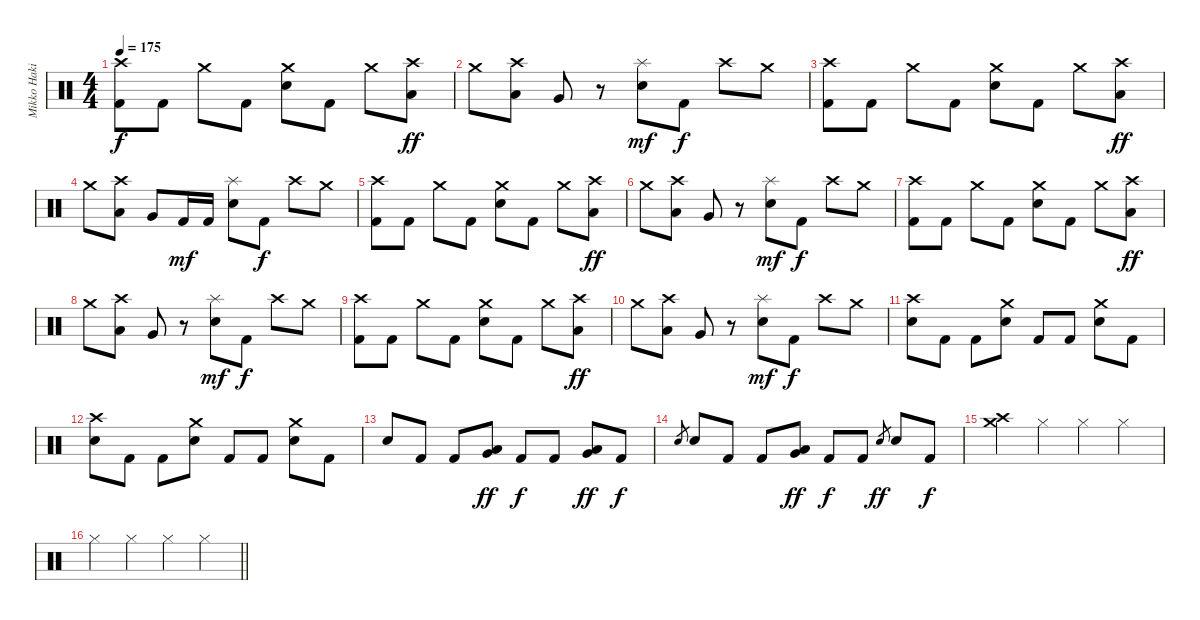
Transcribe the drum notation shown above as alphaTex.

\track ("Mikko Hakila - Drums" "Mikko Haki") {instrument percussion}
\staff {score}
\articulation defaults
\ts (4 4)
\tempo 175
\clef neutral
\ks c
("Crash high (hit)" "Kick (hit) 2").8{dy f} "Kick (hit) 2".8 "Crash medium (hit)".8 "Kick (hit) 2".8 ("Crash medium (hit)" "Electric Snare (hit)").8 "Kick (hit) 2".8 "Crash medium (hit)".8 ("Crash high (hit)" "Low Tom (hit)").8{dy ff} |
"Crash medium (hit)".8 ("Crash high (hit)" "Low Tom (hit)").8 "Very Low Tom (hit)".8 r.8 ("Splash (hit)" "Electric Snare (hit)").8{dy mf} "Kick (hit) 2".8{dy f} "Crash high (hit)".8 "Crash medium (hit)".8 |
("Crash high (hit)" "Kick (hit) 2").8 "Kick (hit) 2".8 "Crash medium (hit)".8 "Kick (hit) 2".8 ("Crash medium (hit)" "Electric Snare (hit)").8 "Kick (hit) 2".8 "Crash medium (hit)".8 ("Crash high (hit)" "Low Tom (hit)").8{dy ff} |
"Crash medium (hit)".8 ("Crash high (hit)" "Low Tom (hit)").8 "Very Low Tom (hit)".8 "Kick (hit) 2".16{dy mf} "Kick (hit) 2".16 ("Splash (hit)" "Electric Snare (hit)").8 "Kick (hit) 2".8{dy f} "Crash high (hit)".8 "Crash medium (hit)".8 |
("Crash high (hit)" "Kick (hit) 2").8 "Kick (hit) 2".8 "Crash medium (hit)".8 "Kick (hit) 2".8 ("Crash medium (hit)" "Electric Snare (hit)").8 "Kick (hit) 2".8 "Crash medium (hit)".8 ("Crash high (hit)" "Low Tom (hit)").8{dy ff} |
"Crash medium (hit)".8 ("Crash high (hit)" "Low Tom (hit)").8 "Very Low Tom (hit)".8 r.8 ("Splash (hit)" "Electric Snare (hit)").8{dy mf} "Kick (hit) 2".8{dy f} "Crash high (hit)".8 "Crash medium (hit)".8 |
("Crash high (hit)" "Kick (hit) 2").8 "Kick (hit) 2".8 "Crash medium (hit)".8 "Kick (hit) 2".8 ("Crash medium (hit)" "Electric Snare (hit)").8 "Kick (hit) 2".8 "Crash medium (hit)".8 ("Crash high (hit)" "Low Tom (hit)").8{dy ff} |
"Crash medium (hit)".8 ("Crash high (hit)" "Low Tom (hit)").8 "Very Low Tom (hit)".8 r.8 ("Splash (hit)" "Electric Snare (hit)").8{dy mf} "Kick (hit) 2".8{dy f} "Crash high (hit)".8 "Crash medium (hit)".8 |
("Crash high (hit)" "Kick (hit) 2").8 "Kick (hit) 2".8 "Crash medium (hit)".8 "Kick (hit) 2".8 ("Crash medium (hit)" "Electric Snare (hit)").8 "Kick (hit) 2".8 "Crash medium (hit)".8 ("Crash high (hit)" "Low Tom (hit)").8{dy ff} |
"Crash medium (hit)".8 ("Crash high (hit)" "Low Tom (hit)").8 "Very Low Tom (hit)".8 r.8 ("Splash (hit)" "Electric Snare (hit)").8{dy mf} "Kick (hit) 2".8{dy f} "Crash high (hit)".8 "Crash medium (hit)".8 |
("Crash high (hit)" "Electric Snare (hit)").8 "Kick (hit) 2".8 "Kick (hit) 2".8 ("Crash medium (hit)" "Electric Snare (hit)").8 "Kick (hit) 2".8 "Kick (hit) 2".8 ("Crash medium (hit)" "Electric Snare (hit)").8 "Kick (hit) 2".8 |
("Crash high (hit)" "Electric Snare (hit)").8 "Kick (hit) 2".8 "Kick (hit) 2".8 ("Crash medium (hit)" "Electric Snare (hit)").8 "Kick (hit) 2".8 "Kick (hit) 2".8 ("Crash medium (hit)" "Electric Snare (hit)").8 "Kick (hit) 2".8 |
"Electric Snare (hit)".8 "Kick (hit) 2".8 "Kick (hit) 2".8 ("Low Tom (hit)" "Very Low Tom (hit)").8{dy ff} "Kick (hit) 2".8{dy f} "Kick (hit) 2".8 ("Low Tom (hit)" "Very Low Tom (hit)").8{dy ff} "Kick (hit) 2".8{dy f} |
"Electric Snare (hit)".8{gr} "Electric Snare (hit)".8 "Kick (hit) 2".8 "Kick (hit) 2".8 ("Low Tom (hit)" "Very Low Tom (hit)").8{dy ff} "Kick (hit) 2".8{dy f} "Kick (hit) 2".8 "Electric Snare (hit)".8{gr dy ff} "Electric Snare (hit)".8 "Kick (hit) 2".8{dy f} |
("Crash medium (hit)" "Crash high (hit)").4 "Hi-Hat (closed)".4 "Hi-Hat (closed)".4 "Hi-Hat (closed)".4 |
\barLineRight lightlight "Hi-Hat (closed)".4 "Hi-Hat (closed)".4 "Hi-Hat (closed)".4 "Hi-Hat (closed)".4
